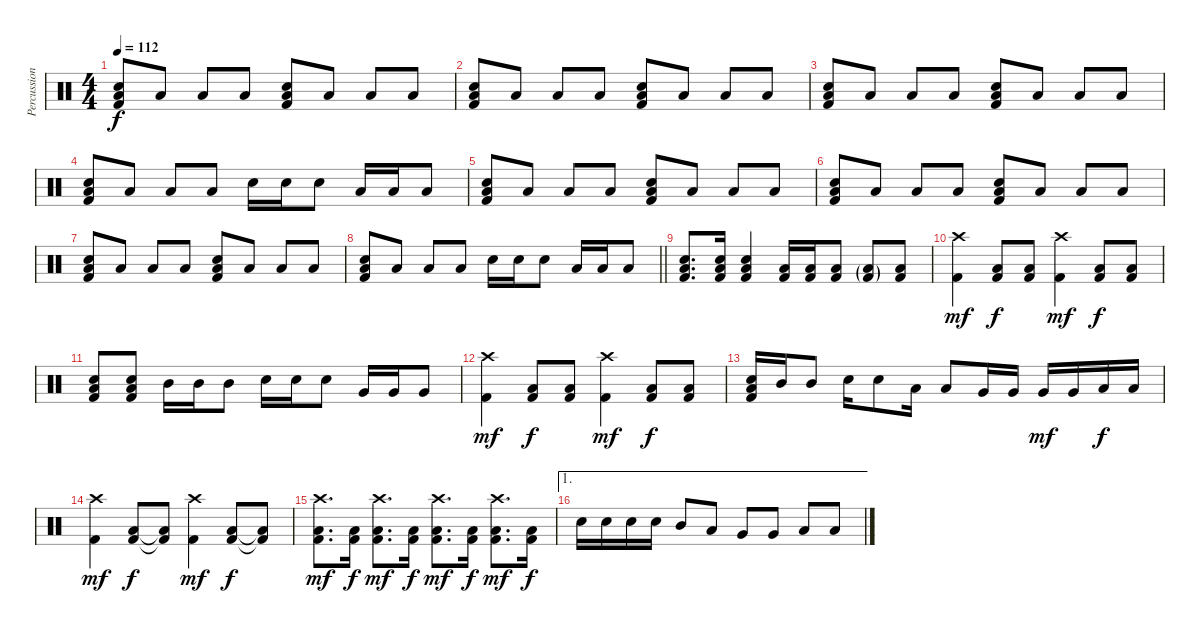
\track ("Percussion" "Percussion") {instrument percussion}
\staff {score}
\articulation defaults
\ts (4 4)
\tempo 112
\clef neutral
\ks c
("Snare (hit) 2" "Low Floor Tom (hit)" "Kick (hit) 2").8{dy f} "Low Floor Tom (hit)".8 "Low Floor Tom (hit)".8 "Low Floor Tom (hit)".8 ("Snare (hit) 2" "Low Floor Tom (hit)" "Kick (hit) 2").8 "Low Floor Tom (hit)".8 "Low Floor Tom (hit)".8 "Low Floor Tom (hit)".8 |
("Snare (hit) 2" "Low Floor Tom (hit)" "Kick (hit) 2").8 "Low Floor Tom (hit)".8 "Low Floor Tom (hit)".8 "Low Floor Tom (hit)".8 ("Snare (hit) 2" "Low Floor Tom (hit)" "Kick (hit) 2").8 "Low Floor Tom (hit)".8 "Low Floor Tom (hit)".8 "Low Floor Tom (hit)".8 |
("Snare (hit) 2" "Low Floor Tom (hit)" "Kick (hit) 2").8 "Low Floor Tom (hit)".8 "Low Floor Tom (hit)".8 "Low Floor Tom (hit)".8 ("Snare (hit) 2" "Low Floor Tom (hit)" "Kick (hit) 2").8 "Low Floor Tom (hit)".8 "Low Floor Tom (hit)".8 "Low Floor Tom (hit)".8 |
("Snare (hit) 2" "Low Floor Tom (hit)" "Kick (hit) 2").8 "Low Floor Tom (hit)".8 "Low Floor Tom (hit)".8 "Low Floor Tom (hit)".8 "Snare (hit) 2".16 "Snare (hit) 2".16 "Snare (hit) 2".8 "Low Tom (hit)".16 "Low Tom (hit)".16 "Low Tom (hit)".8 |
("Snare (hit) 2" "Low Floor Tom (hit)" "Kick (hit) 2").8 "Low Floor Tom (hit)".8 "Low Floor Tom (hit)".8 "Low Floor Tom (hit)".8 ("Snare (hit) 2" "Low Floor Tom (hit)" "Kick (hit) 2").8 "Low Floor Tom (hit)".8 "Low Floor Tom (hit)".8 "Low Floor Tom (hit)".8 |
("Snare (hit) 2" "Low Floor Tom (hit)" "Kick (hit) 2").8 "Low Floor Tom (hit)".8 "Low Floor Tom (hit)".8 "Low Floor Tom (hit)".8 ("Snare (hit) 2" "Low Floor Tom (hit)" "Kick (hit) 2").8 "Low Floor Tom (hit)".8 "Low Floor Tom (hit)".8 "Low Floor Tom (hit)".8 |
("Snare (hit) 2" "Low Floor Tom (hit)" "Kick (hit) 2").8 "Low Floor Tom (hit)".8 "Low Floor Tom (hit)".8 "Low Floor Tom (hit)".8 ("Snare (hit) 2" "Low Floor Tom (hit)" "Kick (hit) 2").8 "Low Floor Tom (hit)".8 "Low Floor Tom (hit)".8 "Low Floor Tom (hit)".8 |
\barLineRight lightlight
("Snare (hit) 2" "Low Floor Tom (hit)" "Kick (hit) 2").8 "Low Floor Tom (hit)".8 "Low Floor Tom (hit)".8 "Low Floor Tom (hit)".8 "Snare (hit) 2".16 "Snare (hit) 2".16 "Snare (hit) 2".8 "Low Tom (hit)".16 "Low Tom (hit)".16 "Low Tom (hit)".8 |
("Snare (hit) 2" "Low Floor Tom (hit)" "Kick (hit) 2").8{d} ("Snare (hit) 2" "Low Floor Tom (hit)" "Kick (hit) 2").16 ("Snare (hit) 2" "Low Floor Tom (hit)" "Kick (hit) 2").4 ("Low Floor Tom (hit)" "Kick (hit) 2").16 ("Low Floor Tom (hit)" "Kick (hit) 2").16 ("Low Floor Tom (hit)" "Kick (hit) 2").8 ("Low Floor Tom (hit)"{g} "Kick (hit) 2"{g}).8 ("Low Floor Tom (hit)" "Kick (hit) 2").8 |
("Crash high (hit)" "Kick (hit) 2").4{dy mf} ("Low Floor Tom (hit)" "Kick (hit) 2").8{dy f} ("Low Floor Tom (hit)" "Kick (hit) 2").8 ("Crash high (hit)" "Kick (hit) 2").4{dy mf} ("Low Floor Tom (hit)" "Kick (hit) 2").8{dy f} ("Low Floor Tom (hit)" "Kick (hit) 2").8 |
("Low Floor Tom (hit)" "Snare (hit) 2" "Kick (hit) 2").8 ("Low Floor Tom (hit)" "Snare (hit) 2" "Kick (hit) 2").8 "Mid Tom (hit)".16 "Mid Tom (hit)".16 "Mid Tom (hit)".8 "Snare (hit) 2".16 "Snare (hit) 2".16 "Snare (hit) 2".8 "Very Low Tom (hit)".16 "Very Low Tom (hit)".16 "Very Low Tom (hit)".8 |
("Crash high (hit)" "Kick (hit) 2").4{dy mf} ("Low Floor Tom (hit)" "Kick (hit) 2").8{dy f} ("Low Floor Tom (hit)" "Kick (hit) 2").8 ("Crash high (hit)" "Kick (hit) 2").4{dy mf} ("Low Floor Tom (hit)" "Kick (hit) 2").8{dy f} ("Low Floor Tom (hit)" "Kick (hit) 2").8 |
("Snare (hit) 2" "Low Floor Tom (hit)" "Kick (hit) 2").16 "Mid Tom (hit)".16 "Mid Tom (hit)".8 "Snare (hit) 2".16 "Snare (hit) 2".8 "Low Tom (hit)".16 "Low Tom (hit)".8 "Very Low Tom (hit)".16 "Very Low Tom (hit)".16 "Very Low Tom (hit)".16{dy mf} "Very Low Tom (hit)".16 "Low Floor Tom (hit)".16{dy f} "Low Floor Tom (hit)".16 |
("Crash high (hit)" "Kick (hit) 2").4{dy mf} ("Low Floor Tom (hit)" "Kick (hit) 2").8{dy f} ("Low Floor Tom (hit)"{t} "Kick (hit) 2"{t}).8 ("Crash high (hit)" "Kick (hit) 2").4{dy mf} ("Low Floor Tom (hit)" "Kick (hit) 2").8{dy f} ("Low Floor Tom (hit)"{t} "Kick (hit) 2"{t}).8 |
("Crash high (hit)" "Low Floor Tom (hit)" "Kick (hit) 2").8{d dy mf} ("Low Floor Tom (hit)" "Kick (hit) 2").16{dy f} ("Crash high (hit)" "Low Floor Tom (hit)" "Kick (hit) 2").8{d dy mf} ("Low Floor Tom (hit)" "Kick (hit) 2").16{dy f} ("Crash high (hit)" "Low Floor Tom (hit)" "Kick (hit) 2").8{d dy mf} ("Low Floor Tom (hit)" "Kick (hit) 2").16{dy f} ("Crash high (hit)" "Low Floor Tom (hit)" "Kick (hit) 2").8{d dy mf} ("Low Floor Tom (hit)" "Kick (hit) 2").16{dy f} |
\ae 1 "Snare (hit) 2".16 "Snare (hit) 2".16 "Snare (hit) 2".16 "Snare (hit) 2".16 "Mid Tom (hit)".8 "Low Tom (hit)".8 "Very Low Tom (hit)".8 "Very Low Tom (hit)".8 "Low Floor Tom (hit)".8 "Low Floor Tom (hit)".8
